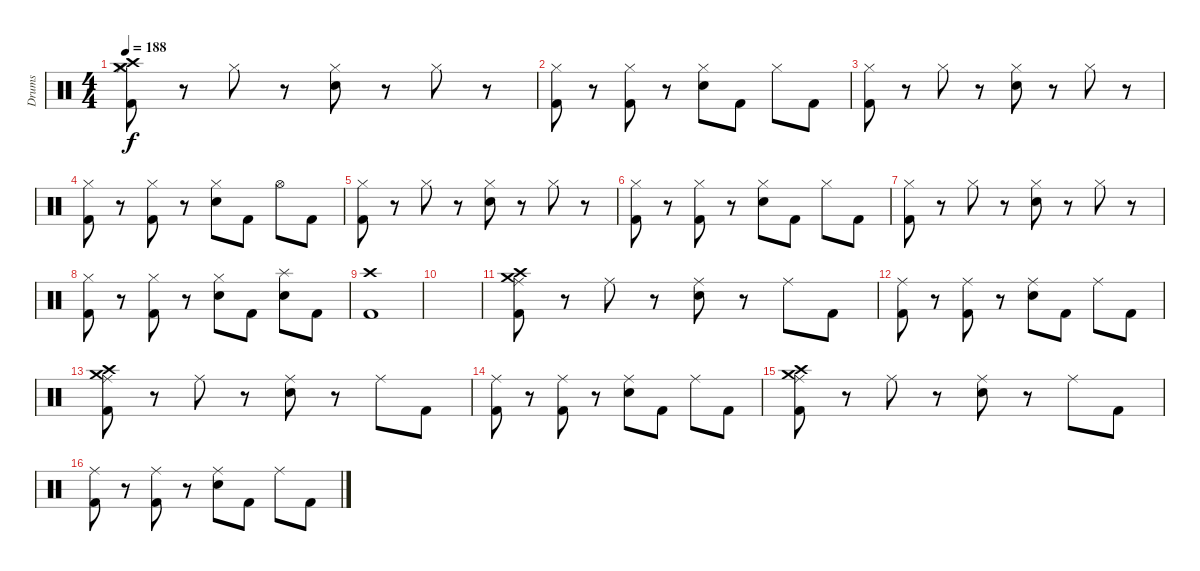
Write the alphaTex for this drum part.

\track ("Drums" "Drums") {instrument percussion}
\staff {score}
\articulation defaults
\ts (4 4)
\tempo 188
\clef neutral
\ks c
("Crash medium (hit)" "Crash high (hit)" "Hi-Hat (closed)" "Kick (hit) 2").8{dy f} r.8 "Hi-Hat (closed)".8 r.8 ("Hi-Hat (closed)" "Snare (hit) 2").8 r.8 "Hi-Hat (closed)".8 r.8 |
("Hi-Hat (closed)" "Kick (hit) 2").8 r.8 ("Hi-Hat (closed)" "Kick (hit) 2").8 r.8 ("Hi-Hat (closed)" "Snare (hit) 2").8 "Kick (hit) 2".8 "Hi-Hat (closed)".8 "Kick (hit) 2".8 |
("Hi-Hat (closed)" "Kick (hit) 2").8 r.8 "Hi-Hat (closed)".8 r.8 ("Hi-Hat (closed)" "Snare (hit) 2").8 r.8 "Hi-Hat (closed)".8 r.8 |
("Hi-Hat (closed)" "Kick (hit) 2").8 r.8 ("Hi-Hat (closed)" "Kick (hit) 2").8 r.8 ("Hi-Hat (closed)" "Snare (hit) 2").8 "Kick (hit) 2".8 "Hi-Hat (open)".8 "Kick (hit) 2".8 |
("Hi-Hat (closed)" "Kick (hit) 2").8 r.8 "Hi-Hat (closed)".8 r.8 ("Hi-Hat (closed)" "Snare (hit) 2").8 r.8 "Hi-Hat (closed)".8 r.8 |
("Hi-Hat (closed)" "Kick (hit) 2").8 r.8 ("Hi-Hat (closed)" "Kick (hit) 2").8 r.8 ("Hi-Hat (closed)" "Snare (hit) 2").8 "Kick (hit) 2".8 "Hi-Hat (closed)".8 "Kick (hit) 2".8 |
("Hi-Hat (closed)" "Kick (hit) 2").8 r.8 "Hi-Hat (closed)".8 r.8 ("Hi-Hat (closed)" "Snare (hit) 2").8 r.8 "Hi-Hat (closed)".8 r.8 |
("Hi-Hat (closed)" "Kick (hit) 2").8 r.8 ("Hi-Hat (closed)" "Kick (hit) 2").8 r.8 ("Hi-Hat (closed)" "Snare (hit) 2").8 "Kick (hit) 2".8 ("Splash (hit)" "Snare (hit) 2").8 "Kick (hit) 2".8 |
("Crash high (hit)" "Kick (hit) 2").1 |
|
("Crash medium (hit)" "Crash high (hit)" "Ride (middle)" "Kick (hit) 2").8 r.8 "Ride (middle)".8 r.8 ("Ride (middle)" "Snare (hit) 2").8 r.8 "Ride (middle)".8 "Kick (hit) 2".8 |
("Ride (middle)" "Kick (hit) 2").8 r.8 ("Ride (middle)" "Kick (hit) 2").8 r.8 ("Ride (middle)" "Snare (hit) 2").8 "Kick (hit) 2".8 "Ride (middle)".8 "Kick (hit) 2".8 |
("Crash medium (hit)" "Crash high (hit)" "Ride (middle)" "Kick (hit) 2").8 r.8 "Ride (middle)".8 r.8 ("Ride (middle)" "Snare (hit) 2").8 r.8 "Ride (middle)".8 "Kick (hit) 2".8 |
("Ride (middle)" "Kick (hit) 2").8 r.8 ("Ride (middle)" "Kick (hit) 2").8 r.8 ("Ride (middle)" "Snare (hit) 2").8 "Kick (hit) 2".8 "Ride (middle)".8 "Kick (hit) 2".8 |
("Crash medium (hit)" "Crash high (hit)" "Ride (middle)" "Kick (hit) 2").8 r.8 "Ride (middle)".8 r.8 ("Ride (middle)" "Snare (hit) 2").8 r.8 "Ride (middle)".8 "Kick (hit) 2".8 |
("Ride (middle)" "Kick (hit) 2").8 r.8 ("Ride (middle)" "Kick (hit) 2").8 r.8 ("Ride (middle)" "Snare (hit) 2").8 "Kick (hit) 2".8 "Ride (middle)".8 "Kick (hit) 2".8
